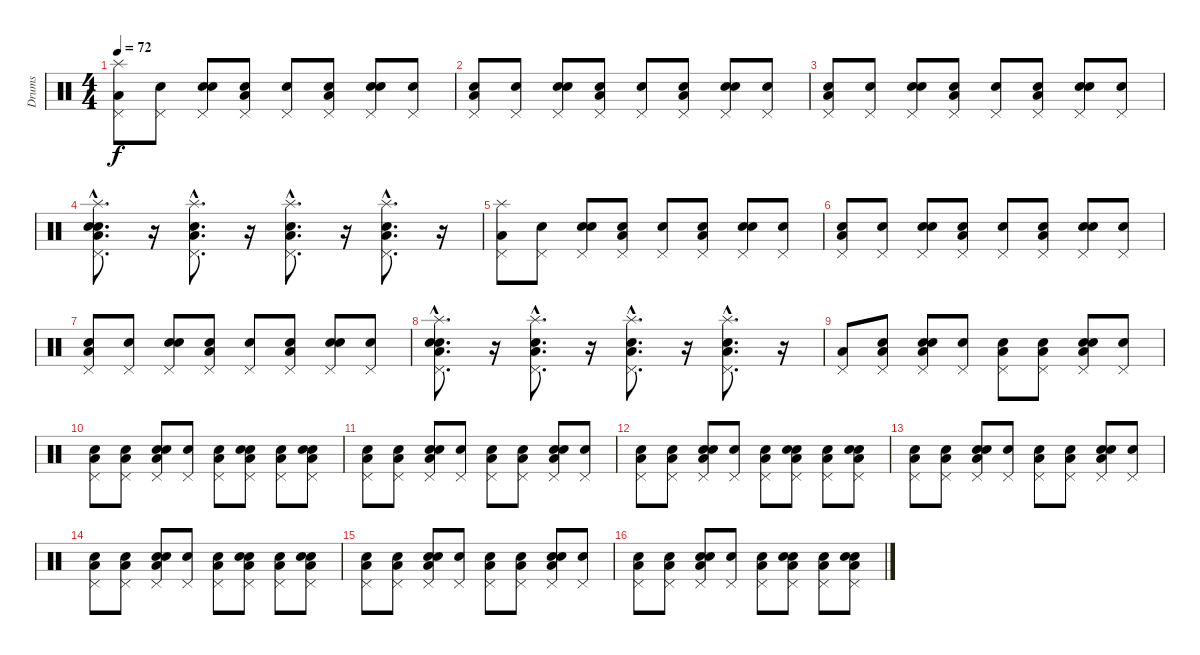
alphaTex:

\track ("Drums" "Drums") {instrument percussion}
\staff {score}
\articulation defaults
\ts (4 4)
\tempo 72
\clef neutral
\ks c
("Low Floor Tom (hit)" "Pedal Hi-Hat (hit)" "Splash (hit)").8{dy f} ("Snare (hit)" "Pedal Hi-Hat (hit)").8 ("Snare (hit)" "Electric Snare (hit)" "Pedal Hi-Hat (hit)").8 ("Snare (hit)" "Low Floor Tom (hit)" "Pedal Hi-Hat (hit)").8 ("Snare (hit)" "Pedal Hi-Hat (hit)").8 ("Snare (hit)" "Low Floor Tom (hit)" "Pedal Hi-Hat (hit)").8 ("Snare (hit)" "Electric Snare (hit)" "Pedal Hi-Hat (hit)").8 ("Snare (hit)" "Pedal Hi-Hat (hit)").8 |
("Snare (hit)" "Low Floor Tom (hit)" "Pedal Hi-Hat (hit)").8 ("Snare (hit)" "Pedal Hi-Hat (hit)").8 ("Snare (hit)" "Electric Snare (hit)" "Pedal Hi-Hat (hit)").8 ("Snare (hit)" "Low Floor Tom (hit)" "Pedal Hi-Hat (hit)").8 ("Snare (hit)" "Pedal Hi-Hat (hit)").8 ("Snare (hit)" "Low Floor Tom (hit)" "Pedal Hi-Hat (hit)").8 ("Snare (hit)" "Electric Snare (hit)" "Pedal Hi-Hat (hit)").8 ("Snare (hit)" "Pedal Hi-Hat (hit)").8 |
("Snare (hit)" "Low Floor Tom (hit)" "Pedal Hi-Hat (hit)").8 ("Snare (hit)" "Pedal Hi-Hat (hit)").8 ("Snare (hit)" "Electric Snare (hit)" "Pedal Hi-Hat (hit)").8 ("Snare (hit)" "Low Floor Tom (hit)" "Pedal Hi-Hat (hit)").8 ("Snare (hit)" "Pedal Hi-Hat (hit)").8 ("Snare (hit)" "Low Floor Tom (hit)" "Pedal Hi-Hat (hit)").8 ("Snare (hit)" "Electric Snare (hit)" "Pedal Hi-Hat (hit)").8 ("Snare (hit)" "Pedal Hi-Hat (hit)").8 |
("Snare (hit)"{hac} "Electric Snare (hit)"{hac} "Low Floor Tom (hit)"{hac} "Pedal Hi-Hat (hit)"{hac} "Splash (hit)"{hac}).8{d} r.16 ("Electric Snare (hit)"{hac} "Low Floor Tom (hit)"{hac} "Pedal Hi-Hat (hit)"{hac} "Splash (hit)"{hac}).8{d} r.16 ("Electric Snare (hit)"{hac} "Low Floor Tom (hit)"{hac} "Pedal Hi-Hat (hit)"{hac} "Splash (hit)"{hac}).8{d} r.16 ("Electric Snare (hit)"{hac} "Low Floor Tom (hit)"{hac} "Pedal Hi-Hat (hit)"{hac} "Splash (hit)"{hac}).8{d} r.16 |
("Low Floor Tom (hit)" "Pedal Hi-Hat (hit)" "Splash (hit)").8 ("Snare (hit)" "Pedal Hi-Hat (hit)").8 ("Snare (hit)" "Electric Snare (hit)" "Pedal Hi-Hat (hit)").8 ("Snare (hit)" "Low Floor Tom (hit)" "Pedal Hi-Hat (hit)").8 ("Snare (hit)" "Pedal Hi-Hat (hit)").8 ("Snare (hit)" "Low Floor Tom (hit)" "Pedal Hi-Hat (hit)").8 ("Snare (hit)" "Electric Snare (hit)" "Pedal Hi-Hat (hit)").8 ("Snare (hit)" "Pedal Hi-Hat (hit)").8 |
("Snare (hit)" "Low Floor Tom (hit)" "Pedal Hi-Hat (hit)").8 ("Snare (hit)" "Pedal Hi-Hat (hit)").8 ("Snare (hit)" "Electric Snare (hit)" "Pedal Hi-Hat (hit)").8 ("Snare (hit)" "Low Floor Tom (hit)" "Pedal Hi-Hat (hit)").8 ("Snare (hit)" "Pedal Hi-Hat (hit)").8 ("Snare (hit)" "Low Floor Tom (hit)" "Pedal Hi-Hat (hit)").8 ("Snare (hit)" "Electric Snare (hit)" "Pedal Hi-Hat (hit)").8 ("Snare (hit)" "Pedal Hi-Hat (hit)").8 |
("Snare (hit)" "Low Floor Tom (hit)" "Pedal Hi-Hat (hit)").8 ("Snare (hit)" "Pedal Hi-Hat (hit)").8 ("Snare (hit)" "Electric Snare (hit)" "Pedal Hi-Hat (hit)").8 ("Snare (hit)" "Low Floor Tom (hit)" "Pedal Hi-Hat (hit)").8 ("Snare (hit)" "Pedal Hi-Hat (hit)").8 ("Snare (hit)" "Low Floor Tom (hit)" "Pedal Hi-Hat (hit)").8 ("Snare (hit)" "Electric Snare (hit)" "Pedal Hi-Hat (hit)").8 ("Snare (hit)" "Pedal Hi-Hat (hit)").8 |
("Snare (hit)"{hac} "Electric Snare (hit)"{hac} "Low Floor Tom (hit)"{hac} "Pedal Hi-Hat (hit)"{hac} "Splash (hit)"{hac}).8{d} r.16 ("Electric Snare (hit)"{hac} "Low Floor Tom (hit)"{hac} "Pedal Hi-Hat (hit)"{hac} "Splash (hit)"{hac}).8{d} r.16 ("Electric Snare (hit)"{hac} "Low Floor Tom (hit)"{hac} "Pedal Hi-Hat (hit)"{hac} "Splash (hit)"{hac}).8{d} r.16 ("Electric Snare (hit)"{hac} "Low Floor Tom (hit)"{hac} "Pedal Hi-Hat (hit)"{hac} "Splash (hit)"{hac}).8{d} r.16 |
("Low Floor Tom (hit)" "Pedal Hi-Hat (hit)").8 ("Snare (hit)" "Low Floor Tom (hit)" "Pedal Hi-Hat (hit)").8 ("Snare (hit)" "Electric Snare (hit)" "Low Floor Tom (hit)" "Pedal Hi-Hat (hit)").8 ("Snare (hit)" "Pedal Hi-Hat (hit)").8 ("Snare (hit)" "Low Floor Tom (hit)" "Pedal Hi-Hat (hit)").8 ("Snare (hit)" "Low Floor Tom (hit)" "Pedal Hi-Hat (hit)").8 ("Snare (hit)" "Electric Snare (hit)" "Low Floor Tom (hit)" "Pedal Hi-Hat (hit)").8 ("Snare (hit)" "Pedal Hi-Hat (hit)").8 |
("Snare (hit)" "Low Floor Tom (hit)" "Pedal Hi-Hat (hit)").8 ("Snare (hit)" "Low Floor Tom (hit)" "Pedal Hi-Hat (hit)").8 ("Snare (hit)" "Electric Snare (hit)" "Low Floor Tom (hit)" "Pedal Hi-Hat (hit)").8 ("Snare (hit)" "Pedal Hi-Hat (hit)").8 ("Snare (hit)" "Low Floor Tom (hit)" "Pedal Hi-Hat (hit)").8 ("Snare (hit)" "Electric Snare (hit)" "Low Floor Tom (hit)" "Pedal Hi-Hat (hit)").8 ("Snare (hit)" "Low Floor Tom (hit)" "Pedal Hi-Hat (hit)").8 ("Snare (hit)" "Electric Snare (hit)" "Low Floor Tom (hit)" "Pedal Hi-Hat (hit)").8 |
("Snare (hit)" "Low Floor Tom (hit)" "Pedal Hi-Hat (hit)").8 ("Snare (hit)" "Low Floor Tom (hit)" "Pedal Hi-Hat (hit)").8 ("Snare (hit)" "Electric Snare (hit)" "Low Floor Tom (hit)" "Pedal Hi-Hat (hit)").8 ("Snare (hit)" "Pedal Hi-Hat (hit)").8 ("Snare (hit)" "Low Floor Tom (hit)" "Pedal Hi-Hat (hit)").8 ("Snare (hit)" "Low Floor Tom (hit)" "Pedal Hi-Hat (hit)").8 ("Snare (hit)" "Electric Snare (hit)" "Low Floor Tom (hit)" "Pedal Hi-Hat (hit)").8 ("Snare (hit)" "Pedal Hi-Hat (hit)").8 |
("Snare (hit)" "Low Floor Tom (hit)" "Pedal Hi-Hat (hit)").8 ("Snare (hit)" "Low Floor Tom (hit)" "Pedal Hi-Hat (hit)").8 ("Snare (hit)" "Electric Snare (hit)" "Low Floor Tom (hit)" "Pedal Hi-Hat (hit)").8 ("Snare (hit)" "Pedal Hi-Hat (hit)").8 ("Snare (hit)" "Low Floor Tom (hit)" "Pedal Hi-Hat (hit)").8 ("Snare (hit)" "Electric Snare (hit)" "Low Floor Tom (hit)" "Pedal Hi-Hat (hit)").8 ("Snare (hit)" "Low Floor Tom (hit)" "Pedal Hi-Hat (hit)").8 ("Snare (hit)" "Electric Snare (hit)" "Low Floor Tom (hit)" "Pedal Hi-Hat (hit)").8 |
("Snare (hit)" "Low Floor Tom (hit)" "Pedal Hi-Hat (hit)").8 ("Snare (hit)" "Low Floor Tom (hit)" "Pedal Hi-Hat (hit)").8 ("Snare (hit)" "Electric Snare (hit)" "Low Floor Tom (hit)" "Pedal Hi-Hat (hit)").8 ("Snare (hit)" "Pedal Hi-Hat (hit)").8 ("Snare (hit)" "Low Floor Tom (hit)" "Pedal Hi-Hat (hit)").8 ("Snare (hit)" "Low Floor Tom (hit)" "Pedal Hi-Hat (hit)").8 ("Snare (hit)" "Electric Snare (hit)" "Low Floor Tom (hit)" "Pedal Hi-Hat (hit)").8 ("Snare (hit)" "Pedal Hi-Hat (hit)").8 |
("Snare (hit)" "Low Floor Tom (hit)" "Pedal Hi-Hat (hit)").8 ("Snare (hit)" "Low Floor Tom (hit)" "Pedal Hi-Hat (hit)").8 ("Snare (hit)" "Electric Snare (hit)" "Low Floor Tom (hit)" "Pedal Hi-Hat (hit)").8 ("Snare (hit)" "Pedal Hi-Hat (hit)").8 ("Snare (hit)" "Low Floor Tom (hit)" "Pedal Hi-Hat (hit)").8 ("Snare (hit)" "Electric Snare (hit)" "Low Floor Tom (hit)" "Pedal Hi-Hat (hit)").8 ("Snare (hit)" "Low Floor Tom (hit)" "Pedal Hi-Hat (hit)").8 ("Snare (hit)" "Electric Snare (hit)" "Low Floor Tom (hit)" "Pedal Hi-Hat (hit)").8 |
("Snare (hit)" "Low Floor Tom (hit)" "Pedal Hi-Hat (hit)").8 ("Snare (hit)" "Low Floor Tom (hit)" "Pedal Hi-Hat (hit)").8 ("Snare (hit)" "Electric Snare (hit)" "Low Floor Tom (hit)" "Pedal Hi-Hat (hit)").8 ("Snare (hit)" "Pedal Hi-Hat (hit)").8 ("Snare (hit)" "Low Floor Tom (hit)" "Pedal Hi-Hat (hit)").8 ("Snare (hit)" "Low Floor Tom (hit)" "Pedal Hi-Hat (hit)").8 ("Snare (hit)" "Electric Snare (hit)" "Low Floor Tom (hit)" "Pedal Hi-Hat (hit)").8 ("Snare (hit)" "Pedal Hi-Hat (hit)").8 |
("Snare (hit)" "Low Floor Tom (hit)" "Pedal Hi-Hat (hit)").8 ("Snare (hit)" "Low Floor Tom (hit)" "Pedal Hi-Hat (hit)").8 ("Snare (hit)" "Electric Snare (hit)" "Low Floor Tom (hit)" "Pedal Hi-Hat (hit)").8 ("Snare (hit)" "Pedal Hi-Hat (hit)").8 ("Snare (hit)" "Low Floor Tom (hit)" "Pedal Hi-Hat (hit)").8 ("Snare (hit)" "Electric Snare (hit)" "Low Floor Tom (hit)" "Pedal Hi-Hat (hit)").8 ("Snare (hit)" "Low Floor Tom (hit)" "Pedal Hi-Hat (hit)").8 ("Snare (hit)" "Electric Snare (hit)" "Low Floor Tom (hit)" "Pedal Hi-Hat (hit)").8
